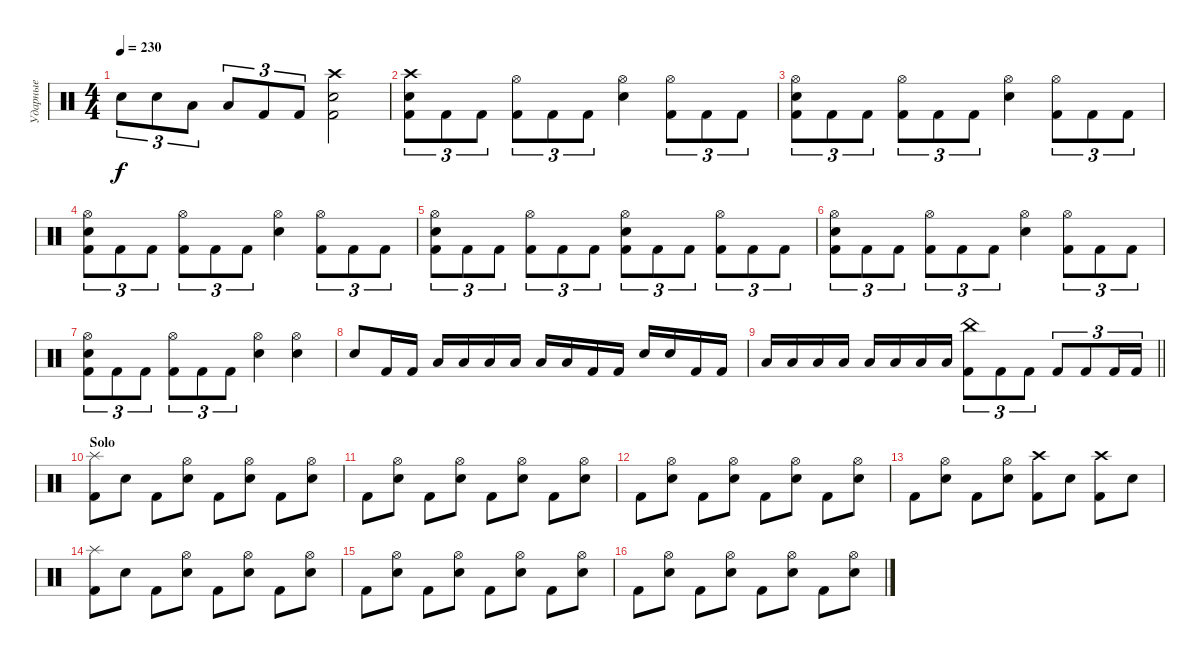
\track ("Ударные" "Ударные") {instrument percussion}
\staff {score}
\articulation defaults
\ts (4 4)
\tempo 230
\clef neutral
\ks c "Snare (hit) 2".8{tu (3 2) dy f} "Snare (hit) 2".8{tu (3 2)} "Low Floor Tom (hit)".8{tu (3 2)} "Low Floor Tom (hit)".8{tu (3 2)} "Kick (hit) 2".8{tu (3 2)} "Kick (hit) 2".8{tu (3 2)}
("Crash high (hit)" "Snare (hit) 2" "Kick (hit) 2").2 |
("Crash high (hit)" "Snare (hit) 2" "Kick (hit) 2").8{tu (3 2)} "Kick (hit) 2".8{tu (3 2)} "Kick (hit) 2".8{tu (3 2)} ("Hi-Hat (open)" "Kick (hit) 2").8{tu (3 2)} "Kick (hit) 2".8{tu (3 2)} "Kick (hit) 2".8{tu (3 2)} ("Hi-Hat (open)" "Snare (hit) 2").4 ("Hi-Hat (open)" "Kick (hit) 2").8{tu (3 2)} "Kick (hit) 2".8{tu (3 2)} "Kick (hit) 2".8{tu (3 2)} |
("Hi-Hat (open)" "Snare (hit) 2" "Kick (hit) 2").8{tu (3 2)} "Kick (hit) 2".8{tu (3 2)} "Kick (hit) 2".8{tu (3 2)} ("Hi-Hat (open)" "Kick (hit) 2").8{tu (3 2)} "Kick (hit) 2".8{tu (3 2)} "Kick (hit) 2".8{tu (3 2)} ("Hi-Hat (open)" "Snare (hit) 2").4 ("Hi-Hat (open)" "Kick (hit) 2").8{tu (3 2)} "Kick (hit) 2".8{tu (3 2)} "Kick (hit) 2".8{tu (3 2)} |
("Hi-Hat (open)" "Snare (hit) 2" "Kick (hit) 2").8{tu (3 2)} "Kick (hit) 2".8{tu (3 2)} "Kick (hit) 2".8{tu (3 2)} ("Hi-Hat (open)" "Kick (hit) 2").8{tu (3 2)} "Kick (hit) 2".8{tu (3 2)} "Kick (hit) 2".8{tu (3 2)} ("Hi-Hat (open)" "Snare (hit) 2").4 ("Hi-Hat (open)" "Kick (hit) 2").8{tu (3 2)} "Kick (hit) 2".8{tu (3 2)} "Kick (hit) 2".8{tu (3 2)} |
("Hi-Hat (open)" "Snare (hit) 2" "Kick (hit) 2").8{tu (3 2)} "Kick (hit) 2".8{tu (3 2)} "Kick (hit) 2".8{tu (3 2)} ("Hi-Hat (open)" "Kick (hit) 2").8{tu (3 2)} "Kick (hit) 2".8{tu (3 2)} "Kick (hit) 2".8{tu (3 2)} ("Kick (hit) 2" "Hi-Hat (open)" "Snare (hit) 2").8{tu (3 2)} "Kick (hit) 2".8{tu (3 2)} "Kick (hit) 2".8{tu (3 2)} ("Hi-Hat (open)" "Kick (hit) 2").8{tu (3 2)} "Kick (hit) 2".8{tu (3 2)} "Kick (hit) 2".8{tu (3 2)} |
("Hi-Hat (open)" "Snare (hit) 2" "Kick (hit) 2").8{tu (3 2)} "Kick (hit) 2".8{tu (3 2)} "Kick (hit) 2".8{tu (3 2)} ("Hi-Hat (open)" "Kick (hit) 2").8{tu (3 2)} "Kick (hit) 2".8{tu (3 2)} "Kick (hit) 2".8{tu (3 2)} ("Hi-Hat (open)" "Snare (hit) 2").4 ("Hi-Hat (open)" "Kick (hit) 2").8{tu (3 2)} "Kick (hit) 2".8{tu (3 2)} "Kick (hit) 2".8{tu (3 2)} |
("Hi-Hat (open)" "Snare (hit) 2" "Kick (hit) 2").8{tu (3 2)} "Kick (hit) 2".8{tu (3 2)} "Kick (hit) 2".8{tu (3 2)} ("Hi-Hat (open)" "Kick (hit) 2").8{tu (3 2)} "Kick (hit) 2".8{tu (3 2)} "Kick (hit) 2".8{tu (3 2)} ("Hi-Hat (open)" "Snare (hit) 2").4 ("Hi-Hat (open)" "Snare (hit) 2").4 |
"Snare (hit) 2".8 "Kick (hit) 2".16 "Kick (hit) 2".16 "Low Tom (hit)".16 "Low Tom (hit)".16 "Low Tom (hit)".16 "Low Floor Tom (hit)".16 "Low Floor Tom (hit)".16 "Low Floor Tom (hit)".16 "Kick (hit) 2".16 "Kick (hit) 2".16 "Snare (hit) 2".16 "Snare (hit) 2".16 "Kick (hit) 2".16 "Kick (hit) 2".16 |
\barLineRight lightlight "Low Tom (hit)".16 "Low Tom (hit)".16 "Low Tom (hit)".16 "Low Tom (hit)".16 "Low Floor Tom (hit)".16 "Low Floor Tom (hit)".16 "Low Floor Tom (hit)".16 "Low Floor Tom (hit)".16
("China (hit)" "Kick (hit) 2").8{tu (3 2)} "Kick (hit) 2".8{tu (3 2)} "Kick (hit) 2".8{tu (3 2)} "Kick (hit) 2".8{tu (3 2)} "Kick (hit) 2".8{tu (3 2)} "Kick (hit) 2".16{tu (3 2)} "Kick (hit) 2".16{tu (3 2)} |
\section ("" "Solo")
("Splash (hit)" "Kick (hit) 2").8 "Snare (hit) 2".8 "Kick (hit) 2".8 ("Hi-Hat (open)" "Snare (hit) 2").8 "Kick (hit) 2".8 ("Hi-Hat (open)" "Snare (hit) 2").8 "Kick (hit) 2".8 ("Hi-Hat (open)" "Snare (hit) 2").8 |
"Kick (hit) 2".8 ("Hi-Hat (open)" "Snare (hit) 2").8 "Kick (hit) 2".8 ("Hi-Hat (open)" "Snare (hit) 2").8 "Kick (hit) 2".8 ("Hi-Hat (open)" "Snare (hit) 2").8 "Kick (hit) 2".8 ("Hi-Hat (open)" "Snare (hit) 2").8 |
"Kick (hit) 2".8 ("Hi-Hat (open)" "Snare (hit) 2").8 "Kick (hit) 2".8 ("Hi-Hat (open)" "Snare (hit) 2").8 "Kick (hit) 2".8 ("Hi-Hat (open)" "Snare (hit) 2").8 "Kick (hit) 2".8 ("Hi-Hat (open)" "Snare (hit) 2").8 |
"Kick (hit) 2".8 ("Hi-Hat (open)" "Snare (hit) 2").8 "Kick (hit) 2".8 ("Hi-Hat (open)" "Snare (hit) 2").8 ("Crash high (hit)" "Kick (hit) 2").8 "Snare (hit) 2".8 ("Crash high (hit)" "Kick (hit) 2").8 "Snare (hit) 2".8 |
("Splash (hit)" "Kick (hit) 2").8 "Snare (hit) 2".8 "Kick (hit) 2".8 ("Hi-Hat (open)" "Snare (hit) 2").8 "Kick (hit) 2".8 ("Hi-Hat (open)" "Snare (hit) 2").8 "Kick (hit) 2".8 ("Hi-Hat (open)" "Snare (hit) 2").8 |
"Kick (hit) 2".8 ("Hi-Hat (open)" "Snare (hit) 2").8 "Kick (hit) 2".8 ("Hi-Hat (open)" "Snare (hit) 2").8 "Kick (hit) 2".8 ("Hi-Hat (open)" "Snare (hit) 2").8 "Kick (hit) 2".8 ("Hi-Hat (open)" "Snare (hit) 2").8 |
"Kick (hit) 2".8 ("Hi-Hat (open)" "Snare (hit) 2").8 "Kick (hit) 2".8 ("Hi-Hat (open)" "Snare (hit) 2").8 "Kick (hit) 2".8 ("Hi-Hat (open)" "Snare (hit) 2").8 "Kick (hit) 2".8 ("Hi-Hat (open)" "Snare (hit) 2").8
